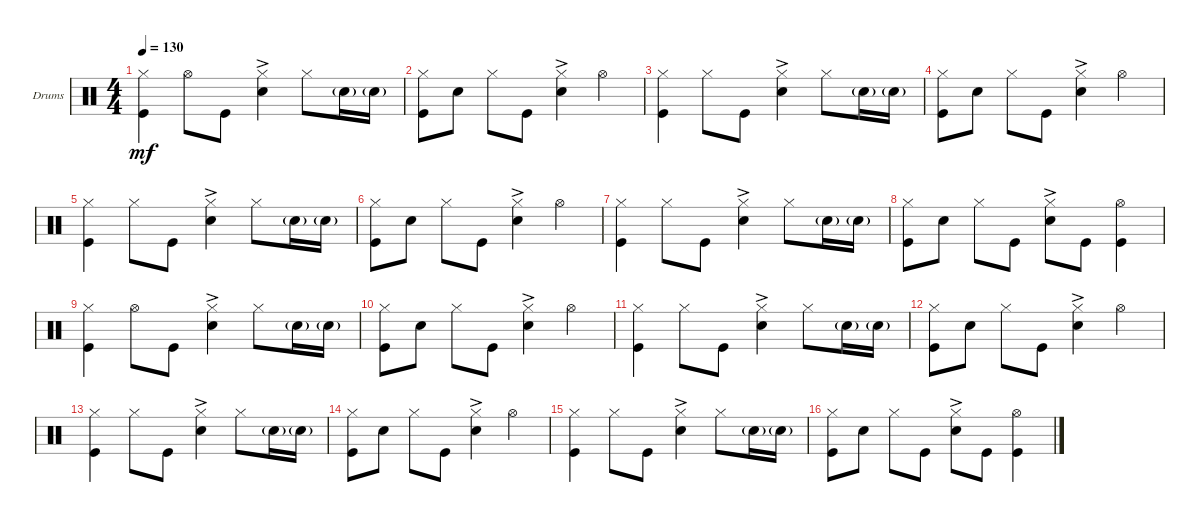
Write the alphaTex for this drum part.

\bracketExtendMode groupsimilarinstruments
\firstSystemTrackNameOrientation horizontal
\otherSystemsTrackNameOrientation horizontal
\track ("Drumkit" "Drums") {instrument percussion}
\staff {score}
\articulation defaults
\ts (4 4)
\tempo 130
\clef neutral
\ks c
("Hi-Hat (closed)" "Kick (hit)").4{dy mf} "Hi-Hat (open)".8 "Kick (hit)".8 ("Snare (hit) 2"{ac} "Hi-Hat (closed)").4 "Hi-Hat (closed)".8 "Snare (hit) 2"{g}.16 "Snare (hit) 2"{g}.16 |
("Kick (hit)" "Hi-Hat (closed)").8 "Snare (hit) 2".8 "Hi-Hat (closed)".8 "Kick (hit)".8 ("Snare (hit) 2"{ac} "Hi-Hat (closed)").4 "Hi-Hat (open)".4 |
("Hi-Hat (closed)" "Kick (hit)").4 "Hi-Hat (closed)".8 "Kick (hit)".8 ("Snare (hit) 2"{ac} "Hi-Hat (closed)").4 "Hi-Hat (closed)".8 "Snare (hit) 2"{g}.16 "Snare (hit) 2"{g}.16 |
("Kick (hit)" "Hi-Hat (closed)").8 "Snare (hit) 2".8 "Hi-Hat (closed)".8 "Kick (hit)".8 ("Snare (hit) 2"{ac} "Hi-Hat (closed)").4 "Hi-Hat (open)".4 |
("Hi-Hat (closed)" "Kick (hit)").4 "Hi-Hat (closed)".8 "Kick (hit)".8 ("Snare (hit) 2"{ac} "Hi-Hat (closed)").4 "Hi-Hat (closed)".8 "Snare (hit) 2"{g}.16 "Snare (hit) 2"{g}.16 |
("Kick (hit)" "Hi-Hat (closed)").8 "Snare (hit) 2".8 "Hi-Hat (closed)".8 "Kick (hit)".8 ("Snare (hit) 2"{ac} "Hi-Hat (closed)").4 "Hi-Hat (open)".4 |
("Hi-Hat (closed)" "Kick (hit)").4 "Hi-Hat (closed)".8 "Kick (hit)".8 ("Snare (hit) 2"{ac} "Hi-Hat (closed)").4 "Hi-Hat (closed)".8 "Snare (hit) 2"{g}.16 "Snare (hit) 2"{g}.16 |
("Kick (hit)" "Hi-Hat (closed)").8 "Snare (hit) 2".8 "Hi-Hat (closed)".8 "Kick (hit)".8 ("Snare (hit) 2"{ac} "Hi-Hat (closed)").8 "Kick (hit)".8 ("Hi-Hat (open)" "Kick (hit)").4 |
("Hi-Hat (closed)" "Kick (hit)").4 "Hi-Hat (open)".8 "Kick (hit)".8 ("Snare (hit) 2"{ac} "Hi-Hat (closed)").4 "Hi-Hat (closed)".8 "Snare (hit) 2"{g}.16 "Snare (hit) 2"{g}.16 |
("Kick (hit)" "Hi-Hat (closed)").8 "Snare (hit) 2".8 "Hi-Hat (closed)".8 "Kick (hit)".8 ("Snare (hit) 2"{ac} "Hi-Hat (closed)").4 "Hi-Hat (open)".4 |
("Hi-Hat (closed)" "Kick (hit)").4 "Hi-Hat (closed)".8 "Kick (hit)".8 ("Snare (hit) 2"{ac} "Hi-Hat (closed)").4 "Hi-Hat (closed)".8 "Snare (hit) 2"{g}.16 "Snare (hit) 2"{g}.16 |
("Kick (hit)" "Hi-Hat (closed)").8 "Snare (hit) 2".8 "Hi-Hat (closed)".8 "Kick (hit)".8 ("Snare (hit) 2"{ac} "Hi-Hat (closed)").4 "Hi-Hat (open)".4 |
("Hi-Hat (closed)" "Kick (hit)").4 "Hi-Hat (closed)".8 "Kick (hit)".8 ("Snare (hit) 2"{ac} "Hi-Hat (closed)").4 "Hi-Hat (closed)".8 "Snare (hit) 2"{g}.16 "Snare (hit) 2"{g}.16 |
("Kick (hit)" "Hi-Hat (closed)").8 "Snare (hit) 2".8 "Hi-Hat (closed)".8 "Kick (hit)".8 ("Snare (hit) 2"{ac} "Hi-Hat (closed)").4 "Hi-Hat (open)".4 |
("Hi-Hat (closed)" "Kick (hit)").4 "Hi-Hat (closed)".8 "Kick (hit)".8 ("Snare (hit) 2"{ac} "Hi-Hat (closed)").4 "Hi-Hat (closed)".8 "Snare (hit) 2"{g}.16 "Snare (hit) 2"{g}.16 |
("Kick (hit)" "Hi-Hat (closed)").8 "Snare (hit) 2".8 "Hi-Hat (closed)".8 "Kick (hit)".8 ("Snare (hit) 2"{ac} "Hi-Hat (closed)").8 "Kick (hit)".8 ("Hi-Hat (open)" "Kick (hit)").4
